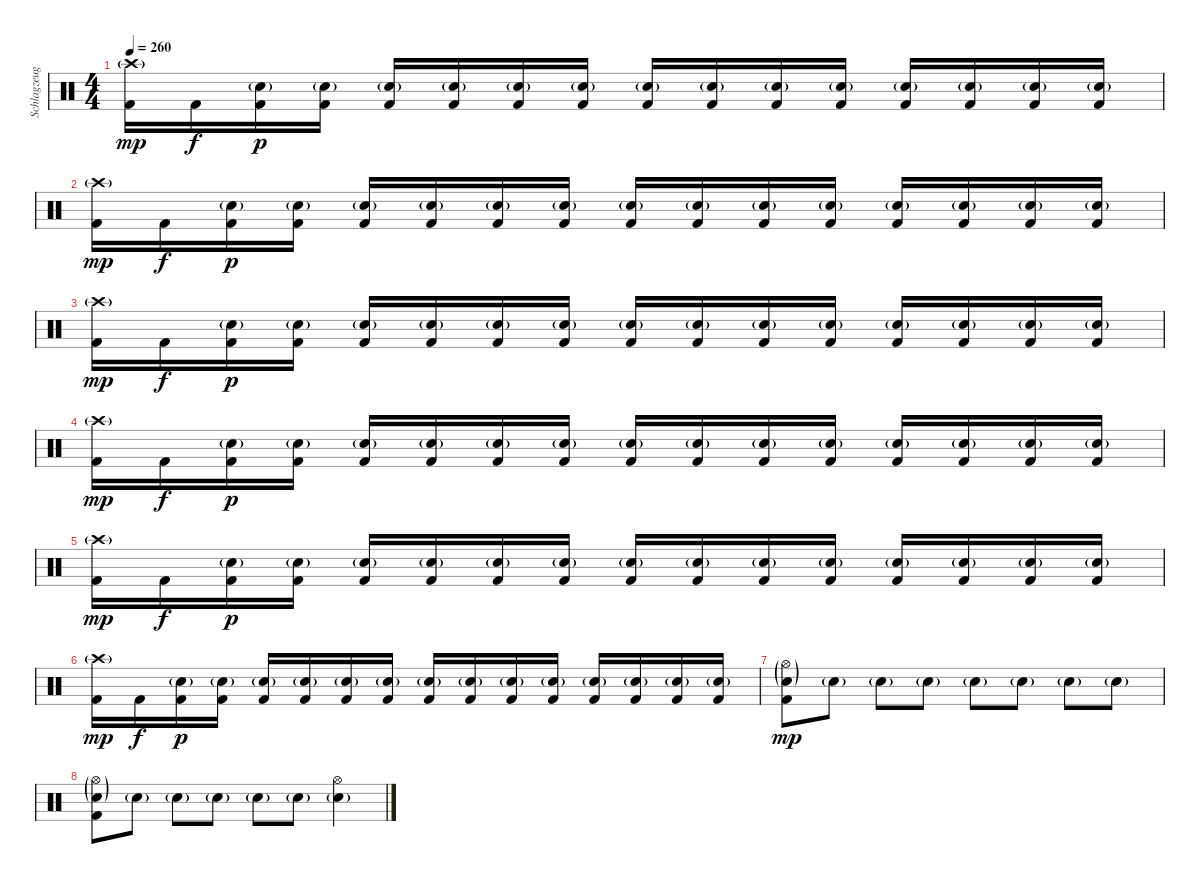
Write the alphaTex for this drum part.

\track ("Schlagzeug" "Schlagzeug") {instrument percussion}
\staff {score}
\articulation defaults
\ts (4 4)
\tempo 260
\clef neutral
\ks c
("Crash high (hit)"{g} "Kick (hit) 2").16{dy mp} "Kick (hit) 2".16{dy f} ("Electric Snare (hit)"{g} "Kick (hit) 2").16{dy p} ("Electric Snare (hit)"{g} "Kick (hit) 2").16 ("Electric Snare (hit)"{g} "Kick (hit) 2").16 ("Electric Snare (hit)"{g} "Kick (hit) 2").16 ("Electric Snare (hit)"{g} "Kick (hit) 2").16 ("Electric Snare (hit)"{g} "Kick (hit) 2").16 ("Electric Snare (hit)"{g} "Kick (hit) 2").16 ("Electric Snare (hit)"{g} "Kick (hit) 2").16 ("Electric Snare (hit)"{g} "Kick (hit) 2").16 ("Electric Snare (hit)"{g} "Kick (hit) 2").16 ("Electric Snare (hit)"{g} "Kick (hit) 2").16 ("Electric Snare (hit)"{g} "Kick (hit) 2").16 ("Electric Snare (hit)"{g} "Kick (hit) 2").16 ("Electric Snare (hit)"{g} "Kick (hit) 2").16 |
("Crash high (hit)"{g} "Kick (hit) 2").16{dy mp} "Kick (hit) 2".16{dy f} ("Electric Snare (hit)"{g} "Kick (hit) 2").16{dy p} ("Electric Snare (hit)"{g} "Kick (hit) 2").16 ("Electric Snare (hit)"{g} "Kick (hit) 2").16 ("Electric Snare (hit)"{g} "Kick (hit) 2").16 ("Electric Snare (hit)"{g} "Kick (hit) 2").16 ("Electric Snare (hit)"{g} "Kick (hit) 2").16 ("Electric Snare (hit)"{g} "Kick (hit) 2").16 ("Electric Snare (hit)"{g} "Kick (hit) 2").16 ("Electric Snare (hit)"{g} "Kick (hit) 2").16 ("Electric Snare (hit)"{g} "Kick (hit) 2").16 ("Electric Snare (hit)"{g} "Kick (hit) 2").16 ("Electric Snare (hit)"{g} "Kick (hit) 2").16 ("Electric Snare (hit)"{g} "Kick (hit) 2").16 ("Electric Snare (hit)"{g} "Kick (hit) 2").16 |
("Crash high (hit)"{g} "Kick (hit) 2").16{dy mp} "Kick (hit) 2".16{dy f} ("Electric Snare (hit)"{g} "Kick (hit) 2").16{dy p} ("Electric Snare (hit)"{g} "Kick (hit) 2").16 ("Electric Snare (hit)"{g} "Kick (hit) 2").16 ("Electric Snare (hit)"{g} "Kick (hit) 2").16 ("Electric Snare (hit)"{g} "Kick (hit) 2").16 ("Electric Snare (hit)"{g} "Kick (hit) 2").16 ("Electric Snare (hit)"{g} "Kick (hit) 2").16 ("Electric Snare (hit)"{g} "Kick (hit) 2").16 ("Electric Snare (hit)"{g} "Kick (hit) 2").16 ("Electric Snare (hit)"{g} "Kick (hit) 2").16 ("Electric Snare (hit)"{g} "Kick (hit) 2").16 ("Electric Snare (hit)"{g} "Kick (hit) 2").16 ("Electric Snare (hit)"{g} "Kick (hit) 2").16 ("Electric Snare (hit)"{g} "Kick (hit) 2").16 |
("Crash high (hit)"{g} "Kick (hit) 2").16{dy mp} "Kick (hit) 2".16{dy f} ("Electric Snare (hit)"{g} "Kick (hit) 2").16{dy p} ("Electric Snare (hit)"{g} "Kick (hit) 2").16 ("Electric Snare (hit)"{g} "Kick (hit) 2").16 ("Electric Snare (hit)"{g} "Kick (hit) 2").16 ("Electric Snare (hit)"{g} "Kick (hit) 2").16 ("Electric Snare (hit)"{g} "Kick (hit) 2").16 ("Electric Snare (hit)"{g} "Kick (hit) 2").16 ("Electric Snare (hit)"{g} "Kick (hit) 2").16 ("Electric Snare (hit)"{g} "Kick (hit) 2").16 ("Electric Snare (hit)"{g} "Kick (hit) 2").16 ("Electric Snare (hit)"{g} "Kick (hit) 2").16 ("Electric Snare (hit)"{g} "Kick (hit) 2").16 ("Electric Snare (hit)"{g} "Kick (hit) 2").16 ("Electric Snare (hit)"{g} "Kick (hit) 2").16 |
("Crash high (hit)"{g} "Kick (hit) 2").16{dy mp} "Kick (hit) 2".16{dy f} ("Electric Snare (hit)"{g} "Kick (hit) 2").16{dy p} ("Electric Snare (hit)"{g} "Kick (hit) 2").16 ("Electric Snare (hit)"{g} "Kick (hit) 2").16 ("Electric Snare (hit)"{g} "Kick (hit) 2").16 ("Electric Snare (hit)"{g} "Kick (hit) 2").16 ("Electric Snare (hit)"{g} "Kick (hit) 2").16 ("Electric Snare (hit)"{g} "Kick (hit) 2").16 ("Electric Snare (hit)"{g} "Kick (hit) 2").16 ("Electric Snare (hit)"{g} "Kick (hit) 2").16 ("Electric Snare (hit)"{g} "Kick (hit) 2").16 ("Electric Snare (hit)"{g} "Kick (hit) 2").16 ("Electric Snare (hit)"{g} "Kick (hit) 2").16 ("Electric Snare (hit)"{g} "Kick (hit) 2").16 ("Electric Snare (hit)"{g} "Kick (hit) 2").16 |
("Crash high (hit)"{g} "Kick (hit) 2").16{dy mp} "Kick (hit) 2".16{dy f} ("Electric Snare (hit)"{g} "Kick (hit) 2").16{dy p} ("Electric Snare (hit)"{g} "Kick (hit) 2").16 ("Electric Snare (hit)"{g} "Kick (hit) 2").16 ("Electric Snare (hit)"{g} "Kick (hit) 2").16 ("Electric Snare (hit)"{g} "Kick (hit) 2").16 ("Electric Snare (hit)"{g} "Kick (hit) 2").16 ("Electric Snare (hit)"{g} "Kick (hit) 2").16 ("Electric Snare (hit)"{g} "Kick (hit) 2").16 ("Electric Snare (hit)"{g} "Kick (hit) 2").16 ("Electric Snare (hit)"{g} "Kick (hit) 2").16 ("Electric Snare (hit)"{g} "Kick (hit) 2").16 ("Electric Snare (hit)"{g} "Kick (hit) 2").16 ("Electric Snare (hit)"{g} "Kick (hit) 2").16 ("Electric Snare (hit)"{g} "Kick (hit) 2").16 |
("Hi-Hat (open)"{g} "Electric Snare (hit)"{g} "Kick (hit) 2").8{dy mp} "Electric Snare (hit)"{g}.8 "Electric Snare (hit)"{g}.8 "Electric Snare (hit)"{g}.8 "Electric Snare (hit)"{g}.8 "Electric Snare (hit)"{g}.8 "Electric Snare (hit)"{g}.8 "Electric Snare (hit)"{g}.8 |
("Hi-Hat (open)"{g} "Electric Snare (hit)"{g} "Kick (hit) 2").8 "Electric Snare (hit)"{g}.8 "Electric Snare (hit)"{g}.8 "Electric Snare (hit)"{g}.8 "Electric Snare (hit)"{g}.8 "Electric Snare (hit)"{g}.8 ("Hi-Hat (open)" "Electric Snare (hit)"{g}).4
